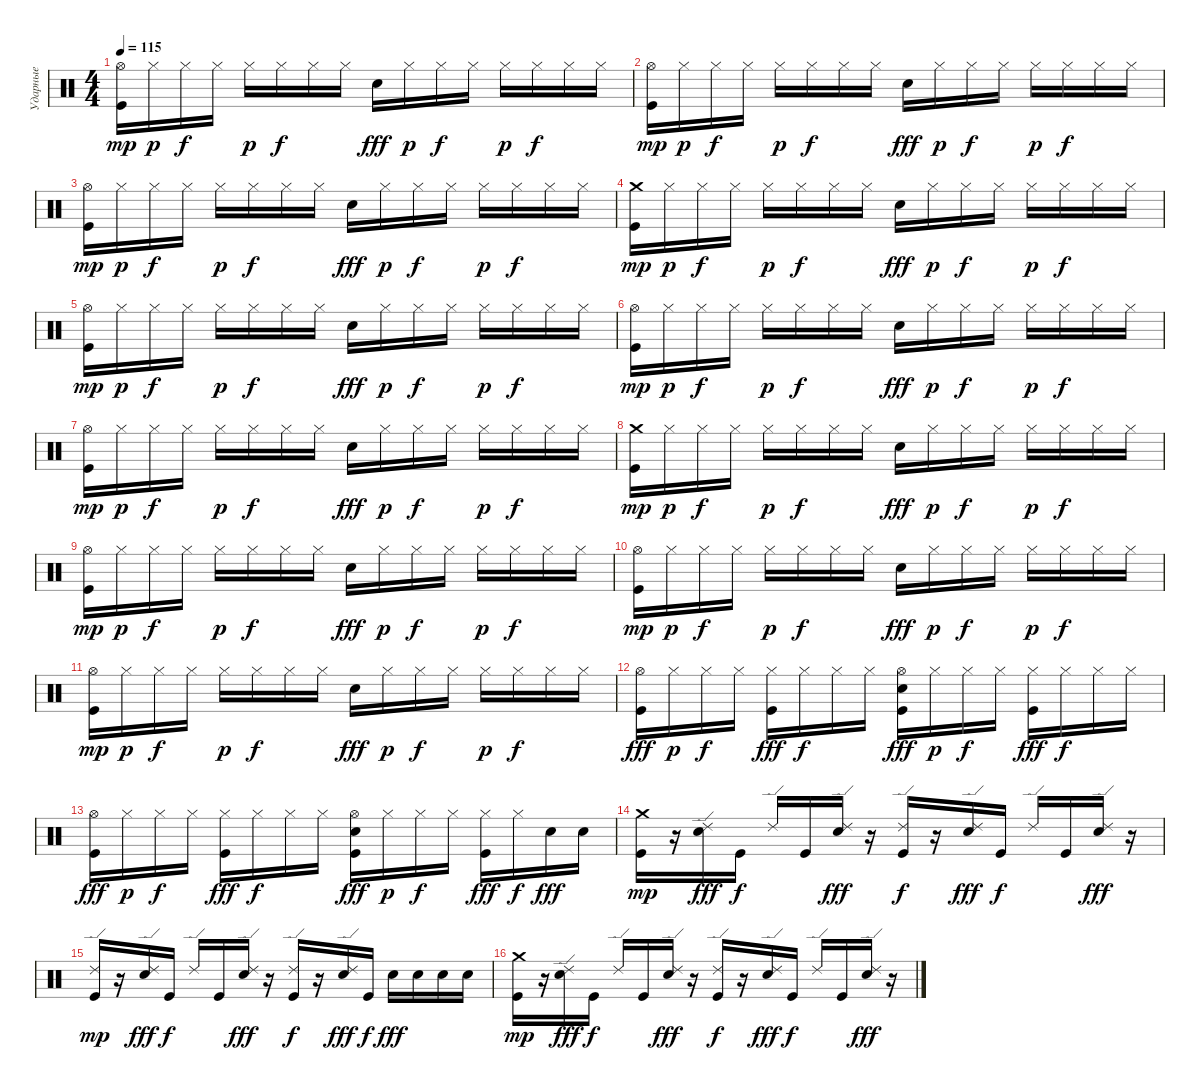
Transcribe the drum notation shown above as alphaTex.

\track ("Ударные" "Ударные") {instrument percussion}
\staff {score}
\articulation defaults
\ts (4 4)
\tempo 115
\clef neutral
\ks c
("Hi-Hat (open)" "Kick (hit)").16{dy mp} "Hi-Hat (closed)".16{dy p} "Hi-Hat (closed)".16{dy f} "Hi-Hat (closed)".16 "Hi-Hat (closed)".16{dy p} "Hi-Hat (closed)".16{dy f} "Hi-Hat (closed)".16 "Hi-Hat (closed)".16 "Electric Snare (hit)".16{dy fff} "Hi-Hat (closed)".16{dy p} "Hi-Hat (closed)".16{dy f} "Hi-Hat (closed)".16 "Hi-Hat (closed)".16{dy p} "Hi-Hat (closed)".16{dy f} "Hi-Hat (closed)".16 "Hi-Hat (closed)".16 |
("Hi-Hat (open)" "Kick (hit)").16{dy mp} "Hi-Hat (closed)".16{dy p} "Hi-Hat (closed)".16{dy f} "Hi-Hat (closed)".16 "Hi-Hat (closed)".16{dy p} "Hi-Hat (closed)".16{dy f} "Hi-Hat (closed)".16 "Hi-Hat (closed)".16 "Electric Snare (hit)".16{dy fff} "Hi-Hat (closed)".16{dy p} "Hi-Hat (closed)".16{dy f} "Hi-Hat (closed)".16 "Hi-Hat (closed)".16{dy p} "Hi-Hat (closed)".16{dy f} "Hi-Hat (closed)".16 "Hi-Hat (closed)".16 |
("Hi-Hat (open)" "Kick (hit)").16{dy mp} "Hi-Hat (closed)".16{dy p} "Hi-Hat (closed)".16{dy f} "Hi-Hat (closed)".16 "Hi-Hat (closed)".16{dy p} "Hi-Hat (closed)".16{dy f} "Hi-Hat (closed)".16 "Hi-Hat (closed)".16 "Electric Snare (hit)".16{dy fff} "Hi-Hat (closed)".16{dy p} "Hi-Hat (closed)".16{dy f} "Hi-Hat (closed)".16 "Hi-Hat (closed)".16{dy p} "Hi-Hat (closed)".16{dy f} "Hi-Hat (closed)".16 "Hi-Hat (closed)".16 |
("Crash medium (hit)" "Kick (hit)").16{dy mp} "Hi-Hat (closed)".16{dy p} "Hi-Hat (closed)".16{dy f} "Hi-Hat (closed)".16 "Hi-Hat (closed)".16{dy p} "Hi-Hat (closed)".16{dy f} "Hi-Hat (closed)".16 "Hi-Hat (closed)".16 "Electric Snare (hit)".16{dy fff} "Hi-Hat (closed)".16{dy p} "Hi-Hat (closed)".16{dy f} "Hi-Hat (closed)".16 "Hi-Hat (closed)".16{dy p} "Hi-Hat (closed)".16{dy f} "Hi-Hat (closed)".16 "Hi-Hat (closed)".16 |
("Hi-Hat (open)" "Kick (hit)").16{dy mp} "Hi-Hat (closed)".16{dy p} "Hi-Hat (closed)".16{dy f} "Hi-Hat (closed)".16 "Hi-Hat (closed)".16{dy p} "Hi-Hat (closed)".16{dy f} "Hi-Hat (closed)".16 "Hi-Hat (closed)".16 "Electric Snare (hit)".16{dy fff} "Hi-Hat (closed)".16{dy p} "Hi-Hat (closed)".16{dy f} "Hi-Hat (closed)".16 "Hi-Hat (closed)".16{dy p} "Hi-Hat (closed)".16{dy f} "Hi-Hat (closed)".16 "Hi-Hat (closed)".16 |
("Hi-Hat (open)" "Kick (hit)").16{dy mp} "Hi-Hat (closed)".16{dy p} "Hi-Hat (closed)".16{dy f} "Hi-Hat (closed)".16 "Hi-Hat (closed)".16{dy p} "Hi-Hat (closed)".16{dy f} "Hi-Hat (closed)".16 "Hi-Hat (closed)".16 "Electric Snare (hit)".16{dy fff} "Hi-Hat (closed)".16{dy p} "Hi-Hat (closed)".16{dy f} "Hi-Hat (closed)".16 "Hi-Hat (closed)".16{dy p} "Hi-Hat (closed)".16{dy f} "Hi-Hat (closed)".16 "Hi-Hat (closed)".16 |
("Hi-Hat (open)" "Kick (hit)").16{dy mp} "Hi-Hat (closed)".16{dy p} "Hi-Hat (closed)".16{dy f} "Hi-Hat (closed)".16 "Hi-Hat (closed)".16{dy p} "Hi-Hat (closed)".16{dy f} "Hi-Hat (closed)".16 "Hi-Hat (closed)".16 "Electric Snare (hit)".16{dy fff} "Hi-Hat (closed)".16{dy p} "Hi-Hat (closed)".16{dy f} "Hi-Hat (closed)".16 "Hi-Hat (closed)".16{dy p} "Hi-Hat (closed)".16{dy f} "Hi-Hat (closed)".16 "Hi-Hat (closed)".16 |
("Crash medium (hit)" "Kick (hit)").16{dy mp} "Hi-Hat (closed)".16{dy p} "Hi-Hat (closed)".16{dy f} "Hi-Hat (closed)".16 "Hi-Hat (closed)".16{dy p} "Hi-Hat (closed)".16{dy f} "Hi-Hat (closed)".16 "Hi-Hat (closed)".16 "Electric Snare (hit)".16{dy fff} "Hi-Hat (closed)".16{dy p} "Hi-Hat (closed)".16{dy f} "Hi-Hat (closed)".16 "Hi-Hat (closed)".16{dy p} "Hi-Hat (closed)".16{dy f} "Hi-Hat (closed)".16 "Hi-Hat (closed)".16 |
("Hi-Hat (open)" "Kick (hit)").16{dy mp} "Hi-Hat (closed)".16{dy p} "Hi-Hat (closed)".16{dy f} "Hi-Hat (closed)".16 "Hi-Hat (closed)".16{dy p} "Hi-Hat (closed)".16{dy f} "Hi-Hat (closed)".16 "Hi-Hat (closed)".16 "Electric Snare (hit)".16{dy fff} "Hi-Hat (closed)".16{dy p} "Hi-Hat (closed)".16{dy f} "Hi-Hat (closed)".16 "Hi-Hat (closed)".16{dy p} "Hi-Hat (closed)".16{dy f} "Hi-Hat (closed)".16 "Hi-Hat (closed)".16 |
("Hi-Hat (open)" "Kick (hit)").16{dy mp} "Hi-Hat (closed)".16{dy p} "Hi-Hat (closed)".16{dy f} "Hi-Hat (closed)".16 "Hi-Hat (closed)".16{dy p} "Hi-Hat (closed)".16{dy f} "Hi-Hat (closed)".16 "Hi-Hat (closed)".16 "Electric Snare (hit)".16{dy fff} "Hi-Hat (closed)".16{dy p} "Hi-Hat (closed)".16{dy f} "Hi-Hat (closed)".16 "Hi-Hat (closed)".16{dy p} "Hi-Hat (closed)".16{dy f} "Hi-Hat (closed)".16 "Hi-Hat (closed)".16 |
("Hi-Hat (open)" "Kick (hit)").16{dy mp} "Hi-Hat (closed)".16{dy p} "Hi-Hat (closed)".16{dy f} "Hi-Hat (closed)".16 "Hi-Hat (closed)".16{dy p} "Hi-Hat (closed)".16{dy f} "Hi-Hat (closed)".16 "Hi-Hat (closed)".16 "Electric Snare (hit)".16{dy fff} "Hi-Hat (closed)".16{dy p} "Hi-Hat (closed)".16{dy f} "Hi-Hat (closed)".16 "Hi-Hat (closed)".16{dy p} "Hi-Hat (closed)".16{dy f} "Hi-Hat (closed)".16 "Hi-Hat (closed)".16 |
("Hi-Hat (open)" "Kick (hit)").16{dy fff} "Hi-Hat (closed)".16{dy p} "Hi-Hat (closed)".16{dy f} "Hi-Hat (closed)".16 ("Hi-Hat (closed)" "Kick (hit)").16{dy fff} "Hi-Hat (closed)".16{dy f} "Hi-Hat (closed)".16 "Hi-Hat (closed)".16 ("Hi-Hat (open)" "Electric Snare (hit)" "Kick (hit)").16{dy fff} "Hi-Hat (closed)".16{dy p} "Hi-Hat (closed)".16{dy f} "Hi-Hat (closed)".16 ("Hi-Hat (closed)" "Kick (hit)").16{dy fff} "Hi-Hat (closed)".16{dy f} "Hi-Hat (closed)".16 "Hi-Hat (closed)".16 |
("Hi-Hat (open)" "Kick (hit)").16{dy fff} "Hi-Hat (closed)".16{dy p} "Hi-Hat (closed)".16{dy f} "Hi-Hat (closed)".16 ("Hi-Hat (closed)" "Kick (hit)").16{dy fff} "Hi-Hat (closed)".16{dy f} "Hi-Hat (closed)".16 "Hi-Hat (closed)".16 ("Hi-Hat (open)" "Electric Snare (hit)" "Kick (hit)").16{dy fff} "Hi-Hat (closed)".16{dy p} "Hi-Hat (closed)".16{dy f} "Hi-Hat (closed)".16 ("Hi-Hat (closed)" "Kick (hit)").16{dy fff} "Hi-Hat (closed)".16{dy f} "Electric Snare (hit)".16{dy fff} "Electric Snare (hit)".16 |
("Crash medium (hit)" "Kick (hit)").16{dy mp} r.16 ("Ride (edge) 2" "Electric Snare (hit)").16{dy fff} "Kick (hit)".16{dy f} "Ride (edge) 2".16 "Kick (hit)".16 ("Ride (edge) 2" "Electric Snare (hit)").16{dy fff} r.16 ("Ride (edge) 2" "Kick (hit)").16{dy f} r.16 ("Ride (edge) 2" "Electric Snare (hit)").16{dy fff} "Kick (hit)".16{dy f} "Ride (edge) 2".16 "Kick (hit)".16 ("Ride (edge) 2" "Electric Snare (hit)").16{dy fff} r.16 |
("Ride (edge) 2" "Kick (hit)").16{dy mp} r.16 ("Ride (edge) 2" "Electric Snare (hit)").16{dy fff} "Kick (hit)".16{dy f} "Ride (edge) 2".16 "Kick (hit)".16 ("Ride (edge) 2" "Electric Snare (hit)").16{dy fff} r.16 ("Ride (edge) 2" "Kick (hit)").16{dy f} r.16 ("Ride (edge) 2" "Electric Snare (hit)").16{dy fff} "Kick (hit)".16{dy f} "Electric Snare (hit)".16{dy fff} "Electric Snare (hit)".16 "Electric Snare (hit)".16 "Electric Snare (hit)".16 |
("Crash medium (hit)" "Kick (hit)").16{dy mp} r.16 ("Ride (edge) 2" "Electric Snare (hit)").16{dy fff} "Kick (hit)".16{dy f} "Ride (edge) 2".16 "Kick (hit)".16 ("Ride (edge) 2" "Electric Snare (hit)").16{dy fff} r.16 ("Ride (edge) 2" "Kick (hit)").16{dy f} r.16 ("Ride (edge) 2" "Electric Snare (hit)").16{dy fff} "Kick (hit)".16{dy f} "Ride (edge) 2".16 "Kick (hit)".16 ("Ride (edge) 2" "Electric Snare (hit)").16{dy fff} r.16
